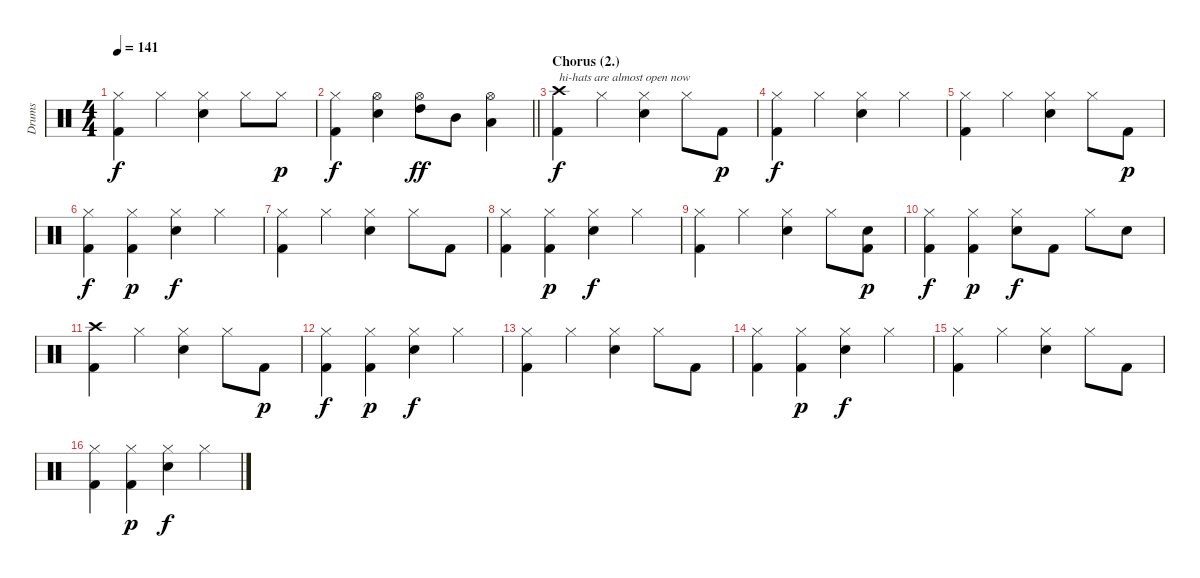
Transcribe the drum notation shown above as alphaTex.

\track ("Drums" "Drums") {instrument percussion}
\staff {score}
\articulation defaults
\ts (4 4)
\tempo 141
\clef neutral
\ks c
("Hi-Hat (closed)" "Kick (hit) 2").4{dy f} "Hi-Hat (closed)".4 ("Hi-Hat (closed)" "Electric Snare (hit)").4 "Hi-Hat (closed)".8 "Hi-Hat (closed)".8{dy p} |
\barLineRight lightlight
("Hi-Hat (closed)" "Kick (hit) 2").4{dy f} ("Hi-Hat (open)" "Electric Snare (hit)").4 ("Hi-Hat (open)" "High Tom (hit)").8{dy ff} "Mid Tom (hit)".8 ("Hi-Hat (open)" "Low Tom (hit)").4 |
\section ("" "Chorus (2.)")
("Crash high (hit)" "Kick (hit) 2").4{txt "hi-hats are almost open now" dy f volume 6} "Hi-Hat (closed)".4 ("Hi-Hat (closed)" "Electric Snare (hit)").4 "Hi-Hat (closed)".8 "Kick (hit) 2".8{dy p} |
("Hi-Hat (closed)" "Kick (hit) 2").4{dy f} "Hi-Hat (closed)".4 ("Hi-Hat (closed)" "Electric Snare (hit)").4 "Hi-Hat (closed)".4 |
("Hi-Hat (closed)" "Kick (hit) 2").4 "Hi-Hat (closed)".4 ("Hi-Hat (closed)" "Electric Snare (hit)").4 "Hi-Hat (closed)".8 "Kick (hit) 2".8{dy p} |
("Hi-Hat (closed)" "Kick (hit) 2").4{dy f} ("Hi-Hat (closed)" "Kick (hit) 2").4{dy p} ("Hi-Hat (closed)" "Electric Snare (hit)").4{dy f} "Hi-Hat (closed)".4 |
("Hi-Hat (closed)" "Kick (hit) 2").4 "Hi-Hat (closed)".4 ("Hi-Hat (closed)" "Electric Snare (hit)").4 "Hi-Hat (closed)".8 "Kick (hit) 2".8 |
("Hi-Hat (closed)" "Kick (hit) 2").4 ("Hi-Hat (closed)" "Kick (hit) 2").4{dy p} ("Hi-Hat (closed)" "Electric Snare (hit)").4{dy f} "Hi-Hat (closed)".4 |
("Hi-Hat (closed)" "Kick (hit) 2").4 "Hi-Hat (closed)".4 ("Hi-Hat (closed)" "Electric Snare (hit)").4 "Hi-Hat (closed)".8 ("Electric Snare (hit)" "Kick (hit) 2").8{dy p} |
("Hi-Hat (closed)" "Kick (hit) 2").4{dy f} ("Hi-Hat (closed)" "Kick (hit) 2").4{dy p} ("Hi-Hat (closed)" "Electric Snare (hit)").8{dy f} "Kick (hit) 2".8 "Hi-Hat (closed)".8 "Electric Snare (hit)".8 |
("Crash high (hit)" "Kick (hit) 2").4 "Hi-Hat (closed)".4 ("Hi-Hat (closed)" "Electric Snare (hit)").4 "Hi-Hat (closed)".8 "Kick (hit) 2".8{dy p} |
("Hi-Hat (closed)" "Kick (hit) 2").4{dy f} ("Hi-Hat (closed)" "Kick (hit) 2").4{dy p} ("Hi-Hat (closed)" "Electric Snare (hit)").4{dy f} "Hi-Hat (closed)".4 |
("Hi-Hat (closed)" "Kick (hit) 2").4 "Hi-Hat (closed)".4 ("Hi-Hat (closed)" "Electric Snare (hit)").4 "Hi-Hat (closed)".8 "Kick (hit) 2".8 |
("Hi-Hat (closed)" "Kick (hit) 2").4 ("Hi-Hat (closed)" "Kick (hit) 2").4{dy p} ("Hi-Hat (closed)" "Electric Snare (hit)").4{dy f} "Hi-Hat (closed)".4 |
("Hi-Hat (closed)" "Kick (hit) 2").4 "Hi-Hat (closed)".4 ("Hi-Hat (closed)" "Electric Snare (hit)").4 "Hi-Hat (closed)".8 "Kick (hit) 2".8 |
("Hi-Hat (closed)" "Kick (hit) 2").4 ("Hi-Hat (closed)" "Kick (hit) 2").4{dy p} ("Hi-Hat (closed)" "Electric Snare (hit)").4{dy f} "Hi-Hat (closed)".4
